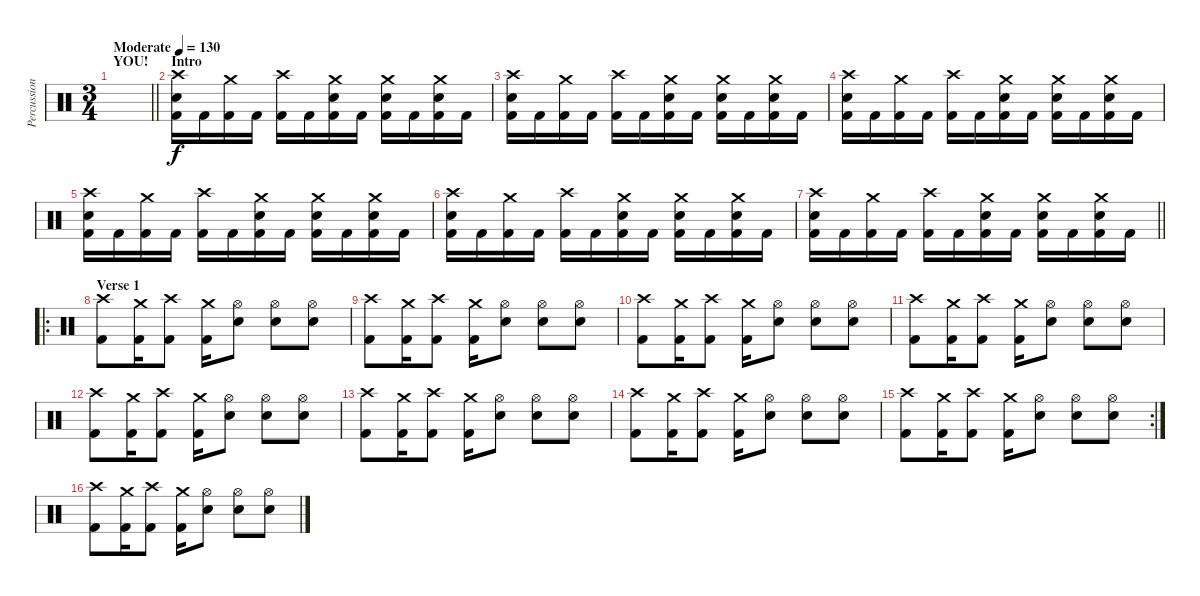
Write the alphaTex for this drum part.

\track ("Percussion" "Percussion") {instrument percussion}
\staff {score}
\articulation defaults
\ts (3 4)
\section ("" "YOU!")
\tempo (130 "Moderate")
\clef neutral
\barLineRight lightlight
\ks c
|
\section ("" "Intro")
("Crash high (hit)" "Snare (hit) 2" "Kick (hit) 2").16 "Kick (hit) 2".16 ("Crash medium (hit)" "Kick (hit) 2").16 "Kick (hit) 2".16 ("Crash high (hit)" "Kick (hit) 2").16 "Kick (hit) 2".16 ("Crash medium (hit)" "Snare (hit) 2" "Kick (hit) 2").16 "Kick (hit) 2".16 ("Crash medium (hit)" "Snare (hit) 2" "Kick (hit) 2").16 "Kick (hit) 2".16 ("Crash medium (hit)" "Snare (hit) 2" "Kick (hit) 2").16 "Kick (hit) 2".16 |
("Crash high (hit)" "Snare (hit) 2" "Kick (hit) 2").16 "Kick (hit) 2".16 ("Crash medium (hit)" "Kick (hit) 2").16 "Kick (hit) 2".16 ("Crash high (hit)" "Kick (hit) 2").16 "Kick (hit) 2".16 ("Crash medium (hit)" "Snare (hit) 2" "Kick (hit) 2").16 "Kick (hit) 2".16 ("Crash medium (hit)" "Snare (hit) 2" "Kick (hit) 2").16 "Kick (hit) 2".16 ("Crash medium (hit)" "Snare (hit) 2" "Kick (hit) 2").16 "Kick (hit) 2".16 |
("Crash high (hit)" "Snare (hit) 2" "Kick (hit) 2").16 "Kick (hit) 2".16 ("Crash medium (hit)" "Kick (hit) 2").16 "Kick (hit) 2".16 ("Crash high (hit)" "Kick (hit) 2").16 "Kick (hit) 2".16 ("Crash medium (hit)" "Snare (hit) 2" "Kick (hit) 2").16 "Kick (hit) 2".16 ("Crash medium (hit)" "Snare (hit) 2" "Kick (hit) 2").16 "Kick (hit) 2".16 ("Crash medium (hit)" "Snare (hit) 2" "Kick (hit) 2").16 "Kick (hit) 2".16 |
("Crash high (hit)" "Snare (hit) 2" "Kick (hit) 2").16 "Kick (hit) 2".16 ("Crash medium (hit)" "Kick (hit) 2").16 "Kick (hit) 2".16 ("Crash high (hit)" "Kick (hit) 2").16 "Kick (hit) 2".16 ("Crash medium (hit)" "Snare (hit) 2" "Kick (hit) 2").16 "Kick (hit) 2".16 ("Crash medium (hit)" "Snare (hit) 2" "Kick (hit) 2").16 "Kick (hit) 2".16 ("Crash medium (hit)" "Snare (hit) 2" "Kick (hit) 2").16 "Kick (hit) 2".16 |
("Crash high (hit)" "Snare (hit) 2" "Kick (hit) 2").16 "Kick (hit) 2".16 ("Crash medium (hit)" "Kick (hit) 2").16 "Kick (hit) 2".16 ("Crash high (hit)" "Kick (hit) 2").16 "Kick (hit) 2".16 ("Crash medium (hit)" "Snare (hit) 2" "Kick (hit) 2").16 "Kick (hit) 2".16 ("Crash medium (hit)" "Snare (hit) 2" "Kick (hit) 2").16 "Kick (hit) 2".16 ("Crash medium (hit)" "Snare (hit) 2" "Kick (hit) 2").16 "Kick (hit) 2".16 |
\barLineRight lightlight
("Crash high (hit)" "Snare (hit) 2" "Kick (hit) 2").16 "Kick (hit) 2".16 ("Crash medium (hit)" "Kick (hit) 2").16 "Kick (hit) 2".16 ("Crash high (hit)" "Kick (hit) 2").16 "Kick (hit) 2".16 ("Crash medium (hit)" "Snare (hit) 2" "Kick (hit) 2").16 "Kick (hit) 2".16 ("Crash medium (hit)" "Snare (hit) 2" "Kick (hit) 2").16 "Kick (hit) 2".16 ("Crash medium (hit)" "Snare (hit) 2" "Kick (hit) 2").16 "Kick (hit) 2".16 |
\ro
\section ("" "Verse 1")
("Crash high (hit)" "Kick (hit) 2").8 ("Crash medium (hit)" "Kick (hit) 2").16 ("Crash high (hit)" "Kick (hit) 2").8 ("Crash medium (hit)" "Kick (hit) 2").16 ("Hi-Hat (open)" "Snare (hit) 2").8 ("Hi-Hat (open)" "Snare (hit) 2").8 ("Hi-Hat (open)" "Snare (hit) 2").8 |
("Crash high (hit)" "Kick (hit) 2").8 ("Crash medium (hit)" "Kick (hit) 2").16 ("Crash high (hit)" "Kick (hit) 2").8 ("Crash medium (hit)" "Kick (hit) 2").16 ("Hi-Hat (open)" "Snare (hit) 2").8 ("Hi-Hat (open)" "Snare (hit) 2").8 ("Hi-Hat (open)" "Snare (hit) 2").8 |
("Crash high (hit)" "Kick (hit) 2").8 ("Crash medium (hit)" "Kick (hit) 2").16 ("Crash high (hit)" "Kick (hit) 2").8 ("Crash medium (hit)" "Kick (hit) 2").16 ("Hi-Hat (open)" "Snare (hit) 2").8 ("Hi-Hat (open)" "Snare (hit) 2").8 ("Hi-Hat (open)" "Snare (hit) 2").8 |
("Crash high (hit)" "Kick (hit) 2").8 ("Crash medium (hit)" "Kick (hit) 2").16 ("Crash high (hit)" "Kick (hit) 2").8 ("Crash medium (hit)" "Kick (hit) 2").16 ("Hi-Hat (open)" "Snare (hit) 2").8 ("Hi-Hat (open)" "Snare (hit) 2").8 ("Hi-Hat (open)" "Snare (hit) 2").8 |
("Crash high (hit)" "Kick (hit) 2").8 ("Crash medium (hit)" "Kick (hit) 2").16 ("Crash high (hit)" "Kick (hit) 2").8 ("Crash medium (hit)" "Kick (hit) 2").16 ("Hi-Hat (open)" "Snare (hit) 2").8 ("Hi-Hat (open)" "Snare (hit) 2").8 ("Hi-Hat (open)" "Snare (hit) 2").8 |
("Crash high (hit)" "Kick (hit) 2").8 ("Crash medium (hit)" "Kick (hit) 2").16 ("Crash high (hit)" "Kick (hit) 2").8 ("Crash medium (hit)" "Kick (hit) 2").16 ("Hi-Hat (open)" "Snare (hit) 2").8 ("Hi-Hat (open)" "Snare (hit) 2").8 ("Hi-Hat (open)" "Snare (hit) 2").8 |
("Crash high (hit)" "Kick (hit) 2").8 ("Crash medium (hit)" "Kick (hit) 2").16 ("Crash high (hit)" "Kick (hit) 2").8 ("Crash medium (hit)" "Kick (hit) 2").16 ("Hi-Hat (open)" "Snare (hit) 2").8 ("Hi-Hat (open)" "Snare (hit) 2").8 ("Hi-Hat (open)" "Snare (hit) 2").8 |
\rc 2
("Crash high (hit)" "Kick (hit) 2").8 ("Crash medium (hit)" "Kick (hit) 2").16 ("Crash high (hit)" "Kick (hit) 2").8 ("Crash medium (hit)" "Kick (hit) 2").16 ("Hi-Hat (open)" "Snare (hit) 2").8 ("Hi-Hat (open)" "Snare (hit) 2").8 ("Hi-Hat (open)" "Snare (hit) 2").8 |
("Crash high (hit)" "Kick (hit) 2").8 ("Crash medium (hit)" "Kick (hit) 2").16 ("Crash high (hit)" "Kick (hit) 2").8 ("Crash medium (hit)" "Kick (hit) 2").16 ("Hi-Hat (open)" "Snare (hit) 2").8 ("Hi-Hat (open)" "Snare (hit) 2").8 ("Hi-Hat (open)" "Snare (hit) 2").8
